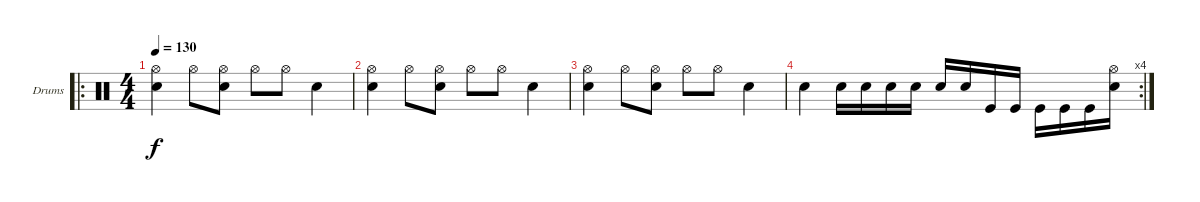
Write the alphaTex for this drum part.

\defaultSystemsLayout 4
\bracketExtendMode groupsimilarinstruments
\firstSystemTrackNameOrientation horizontal
\otherSystemsTrackNameOrientation horizontal
\track ("Барабаны1" "Drums") {instrument percussion}
\staff {score}
\articulation defaults
\ro
\ts (4 4)
\tempo 130
\clef neutral
\ks c
("Snare (hit) 2" "Hi-Hat (open)").4{dy f} "Hi-Hat (open)".8 ("Hi-Hat (open)" "Snare (hit) 2").8 "Hi-Hat (open)".8 "Hi-Hat (open)".8 "Snare (hit) 2".4 |
("Snare (hit) 2" "Hi-Hat (open)").4 "Hi-Hat (open)".8 ("Hi-Hat (open)" "Snare (hit) 2").8 "Hi-Hat (open)".8 "Hi-Hat (open)".8 "Snare (hit) 2".4 |
("Snare (hit) 2" "Hi-Hat (open)").4 "Hi-Hat (open)".8 ("Hi-Hat (open)" "Snare (hit) 2").8 "Hi-Hat (open)".8 "Hi-Hat (open)".8 "Snare (hit) 2".4 |
\rc 4 "Snare (hit) 2".4 "Snare (hit) 2".16 "Snare (hit) 2".16 "Snare (hit) 2".16 "Snare (hit) 2".16 "Snare (hit) 2".16 "Snare (hit) 2".16 "Kick (hit)".16 "Kick (hit)".16 "Kick (hit)".16 "Kick (hit)".16 "Kick (hit)".16
("Snare (hit) 2" "Hi-Hat (open)").16
